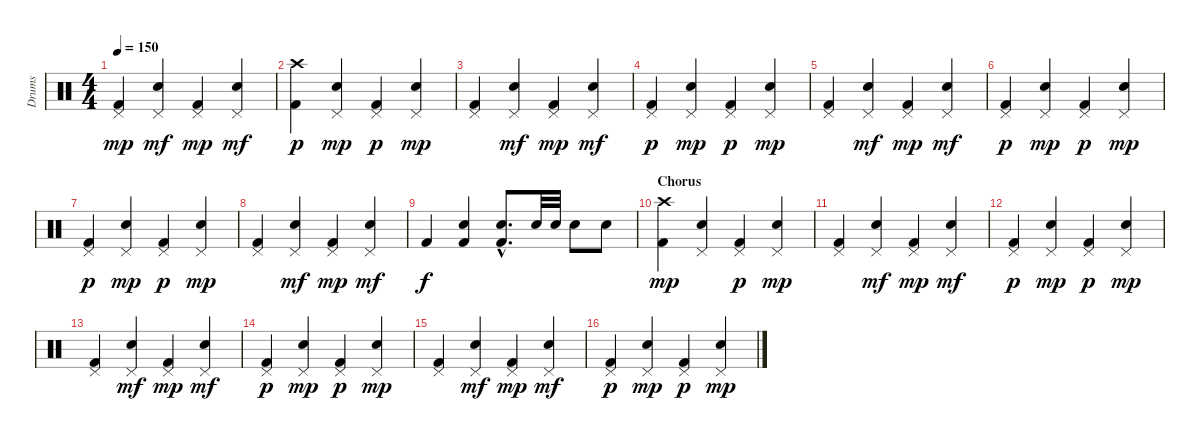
\track ("Drums" "Drums") {instrument percussion}
\staff {score}
\articulation defaults
\ts (4 4)
\tempo 150
\clef neutral
\ks c
("Pedal Hi-Hat (hit)" "Kick (hit) 2").4{dy mp} ("Pedal Hi-Hat (hit)" "Electric Snare (hit)").4{dy mf} ("Pedal Hi-Hat (hit)" "Kick (hit) 2").4{dy mp} ("Pedal Hi-Hat (hit)" "Electric Snare (hit)").4{dy mf} |
("Crash high (hit)" "Kick (hit) 2").4{dy p} ("Pedal Hi-Hat (hit)" "Electric Snare (hit)").4{dy mp} ("Pedal Hi-Hat (hit)" "Kick (hit) 2").4{dy p} ("Pedal Hi-Hat (hit)" "Electric Snare (hit)").4{dy mp} |
("Pedal Hi-Hat (hit)" "Kick (hit) 2").4 ("Pedal Hi-Hat (hit)" "Electric Snare (hit)").4{dy mf} ("Pedal Hi-Hat (hit)" "Kick (hit) 2").4{dy mp} ("Pedal Hi-Hat (hit)" "Electric Snare (hit)").4{dy mf} |
("Pedal Hi-Hat (hit)" "Kick (hit) 2").4{dy p} ("Pedal Hi-Hat (hit)" "Electric Snare (hit)").4{dy mp} ("Pedal Hi-Hat (hit)" "Kick (hit) 2").4{dy p} ("Pedal Hi-Hat (hit)" "Electric Snare (hit)").4{dy mp} |
("Pedal Hi-Hat (hit)" "Kick (hit) 2").4 ("Pedal Hi-Hat (hit)" "Electric Snare (hit)").4{dy mf} ("Pedal Hi-Hat (hit)" "Kick (hit) 2").4{dy mp} ("Pedal Hi-Hat (hit)" "Electric Snare (hit)").4{dy mf} |
("Pedal Hi-Hat (hit)" "Kick (hit) 2").4{dy p} ("Pedal Hi-Hat (hit)" "Electric Snare (hit)").4{dy mp} ("Pedal Hi-Hat (hit)" "Kick (hit) 2").4{dy p} ("Pedal Hi-Hat (hit)" "Electric Snare (hit)").4{dy mp} |
("Pedal Hi-Hat (hit)" "Kick (hit) 2").4{dy p} ("Pedal Hi-Hat (hit)" "Electric Snare (hit)").4{dy mp} ("Pedal Hi-Hat (hit)" "Kick (hit) 2").4{dy p} ("Pedal Hi-Hat (hit)" "Electric Snare (hit)").4{dy mp} |
("Pedal Hi-Hat (hit)" "Kick (hit) 2").4 ("Pedal Hi-Hat (hit)" "Electric Snare (hit)").4{dy mf} ("Pedal Hi-Hat (hit)" "Kick (hit) 2").4{dy mp} ("Pedal Hi-Hat (hit)" "Electric Snare (hit)").4{dy mf} |
"Kick (hit) 2".4{dy f} ("Electric Snare (hit)" "Kick (hit) 2").4 ("Electric Snare (hit)"{hac} "Kick (hit) 2"{hac}).8{d} "Electric Snare (hit)".32 "Electric Snare (hit)".32 "Electric Snare (hit)".8 "Electric Snare (hit)".8 |
\section ("" "Chorus")
("Crash high (hit)" "Kick (hit) 2").4{dy mp} ("Pedal Hi-Hat (hit)" "Electric Snare (hit)").4 ("Pedal Hi-Hat (hit)" "Kick (hit) 2").4{dy p} ("Pedal Hi-Hat (hit)" "Electric Snare (hit)").4{dy mp} |
("Pedal Hi-Hat (hit)" "Kick (hit) 2").4 ("Pedal Hi-Hat (hit)" "Electric Snare (hit)").4{dy mf} ("Pedal Hi-Hat (hit)" "Kick (hit) 2").4{dy mp} ("Pedal Hi-Hat (hit)" "Electric Snare (hit)").4{dy mf} |
("Pedal Hi-Hat (hit)" "Kick (hit) 2").4{dy p} ("Pedal Hi-Hat (hit)" "Electric Snare (hit)").4{dy mp} ("Pedal Hi-Hat (hit)" "Kick (hit) 2").4{dy p} ("Pedal Hi-Hat (hit)" "Electric Snare (hit)").4{dy mp} |
("Pedal Hi-Hat (hit)" "Kick (hit) 2").4 ("Pedal Hi-Hat (hit)" "Electric Snare (hit)").4{dy mf} ("Pedal Hi-Hat (hit)" "Kick (hit) 2").4{dy mp} ("Pedal Hi-Hat (hit)" "Electric Snare (hit)").4{dy mf} |
("Pedal Hi-Hat (hit)" "Kick (hit) 2").4{dy p} ("Pedal Hi-Hat (hit)" "Electric Snare (hit)").4{dy mp} ("Pedal Hi-Hat (hit)" "Kick (hit) 2").4{dy p} ("Pedal Hi-Hat (hit)" "Electric Snare (hit)").4{dy mp} |
("Pedal Hi-Hat (hit)" "Kick (hit) 2").4 ("Pedal Hi-Hat (hit)" "Electric Snare (hit)").4{dy mf} ("Pedal Hi-Hat (hit)" "Kick (hit) 2").4{dy mp} ("Pedal Hi-Hat (hit)" "Electric Snare (hit)").4{dy mf} |
("Pedal Hi-Hat (hit)" "Kick (hit) 2").4{dy p} ("Pedal Hi-Hat (hit)" "Electric Snare (hit)").4{dy mp} ("Pedal Hi-Hat (hit)" "Kick (hit) 2").4{dy p} ("Pedal Hi-Hat (hit)" "Electric Snare (hit)").4{dy mp}
